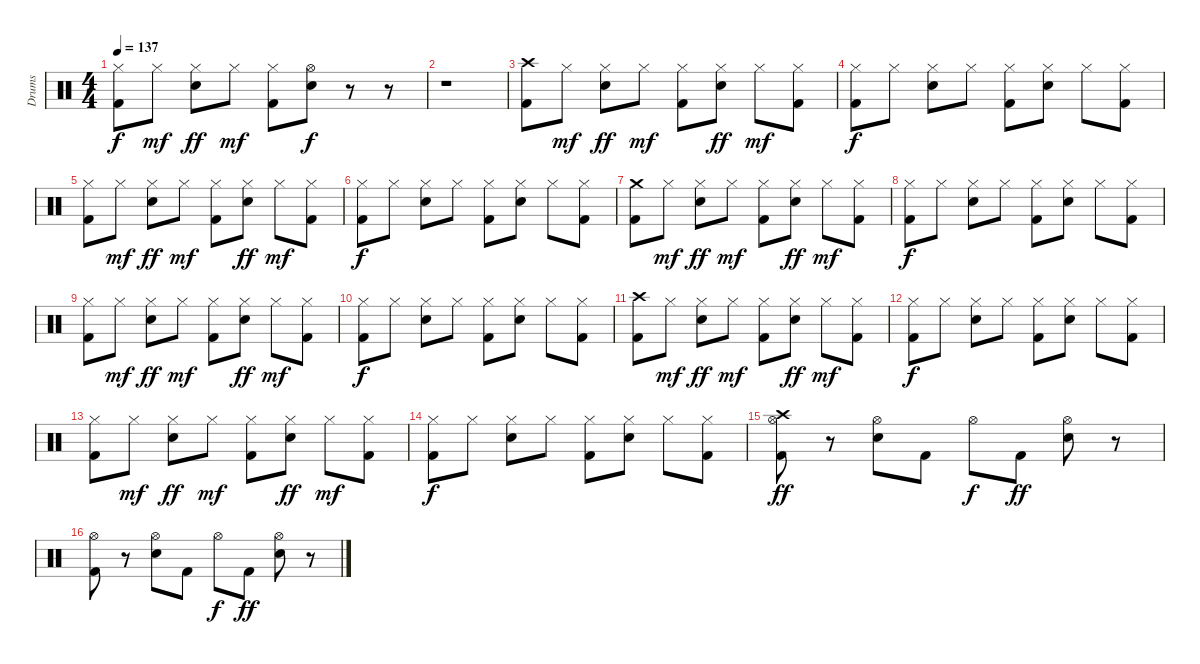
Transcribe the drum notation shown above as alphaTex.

\track ("Drums" "Drums") {instrument percussion}
\staff {score}
\articulation defaults
\ts (4 4)
\tempo 137
\clef neutral
\ks c
("Hi-Hat (closed)" "Kick (hit) 2").8{dy f} "Hi-Hat (closed)".8{dy mf} ("Hi-Hat (closed)" "Electric Snare (hit)").8{dy ff} "Hi-Hat (closed)".8{dy mf} ("Hi-Hat (closed)" "Kick (hit) 2").8 ("Hi-Hat (open)" "Electric Snare (hit)").8{dy f} r.8 r.8 |
r.1 |
("Crash high (hit)" "Kick (hit) 2").8 "Hi-Hat (closed)".8{dy mf} ("Hi-Hat (closed)" "Electric Snare (hit)").8{dy ff} "Hi-Hat (closed)".8{dy mf} ("Hi-Hat (closed)" "Kick (hit) 2").8 ("Hi-Hat (closed)" "Electric Snare (hit)").8{dy ff} "Hi-Hat (closed)".8{dy mf} ("Hi-Hat (closed)" "Kick (hit) 2").8 |
("Hi-Hat (closed)" "Kick (hit) 2").8{dy f} "Hi-Hat (closed)".8 ("Hi-Hat (closed)" "Electric Snare (hit)").8 "Hi-Hat (closed)".8 ("Hi-Hat (closed)" "Kick (hit) 2").8 ("Hi-Hat (closed)" "Electric Snare (hit)").8 "Hi-Hat (closed)".8 ("Hi-Hat (closed)" "Kick (hit) 2").8 |
("Hi-Hat (closed)" "Kick (hit) 2").8 "Hi-Hat (closed)".8{dy mf} ("Hi-Hat (closed)" "Electric Snare (hit)").8{dy ff} "Hi-Hat (closed)".8{dy mf} ("Hi-Hat (closed)" "Kick (hit) 2").8 ("Hi-Hat (closed)" "Electric Snare (hit)").8{dy ff} "Hi-Hat (closed)".8{dy mf} ("Hi-Hat (closed)" "Kick (hit) 2").8 |
("Hi-Hat (closed)" "Kick (hit) 2").8{dy f} "Hi-Hat (closed)".8 ("Hi-Hat (closed)" "Electric Snare (hit)").8 "Hi-Hat (closed)".8 ("Hi-Hat (closed)" "Kick (hit) 2").8 ("Hi-Hat (closed)" "Electric Snare (hit)").8 "Hi-Hat (closed)".8 ("Hi-Hat (closed)" "Kick (hit) 2").8 |
("Crash medium (hit)" "Kick (hit) 2").8 "Hi-Hat (closed)".8{dy mf} ("Hi-Hat (closed)" "Electric Snare (hit)").8{dy ff} "Hi-Hat (closed)".8{dy mf} ("Hi-Hat (closed)" "Kick (hit) 2").8 ("Hi-Hat (closed)" "Electric Snare (hit)").8{dy ff} "Hi-Hat (closed)".8{dy mf} ("Hi-Hat (closed)" "Kick (hit) 2").8 |
("Hi-Hat (closed)" "Kick (hit) 2").8{dy f} "Hi-Hat (closed)".8 ("Hi-Hat (closed)" "Electric Snare (hit)").8 "Hi-Hat (closed)".8 ("Hi-Hat (closed)" "Kick (hit) 2").8 ("Hi-Hat (closed)" "Electric Snare (hit)").8 "Hi-Hat (closed)".8 ("Hi-Hat (closed)" "Kick (hit) 2").8 |
("Hi-Hat (closed)" "Kick (hit) 2").8 "Hi-Hat (closed)".8{dy mf} ("Hi-Hat (closed)" "Electric Snare (hit)").8{dy ff} "Hi-Hat (closed)".8{dy mf} ("Hi-Hat (closed)" "Kick (hit) 2").8 ("Hi-Hat (closed)" "Electric Snare (hit)").8{dy ff} "Hi-Hat (closed)".8{dy mf} ("Hi-Hat (closed)" "Kick (hit) 2").8 |
("Hi-Hat (closed)" "Kick (hit) 2").8{dy f} "Hi-Hat (closed)".8 ("Hi-Hat (closed)" "Electric Snare (hit)").8 "Hi-Hat (closed)".8 ("Hi-Hat (closed)" "Kick (hit) 2").8 ("Hi-Hat (closed)" "Electric Snare (hit)").8 "Hi-Hat (closed)".8 ("Hi-Hat (closed)" "Kick (hit) 2").8 |
("Crash high (hit)" "Kick (hit) 2").8 "Hi-Hat (closed)".8{dy mf} ("Hi-Hat (closed)" "Electric Snare (hit)").8{dy ff} "Hi-Hat (closed)".8{dy mf} ("Hi-Hat (closed)" "Kick (hit) 2").8 ("Hi-Hat (closed)" "Electric Snare (hit)").8{dy ff} "Hi-Hat (closed)".8{dy mf} ("Hi-Hat (closed)" "Kick (hit) 2").8 |
("Hi-Hat (closed)" "Kick (hit) 2").8{dy f} "Hi-Hat (closed)".8 ("Hi-Hat (closed)" "Electric Snare (hit)").8 "Hi-Hat (closed)".8 ("Hi-Hat (closed)" "Kick (hit) 2").8 ("Hi-Hat (closed)" "Electric Snare (hit)").8 "Hi-Hat (closed)".8 ("Hi-Hat (closed)" "Kick (hit) 2").8 |
("Hi-Hat (closed)" "Kick (hit) 2").8 "Hi-Hat (closed)".8{dy mf} ("Hi-Hat (closed)" "Electric Snare (hit)").8{dy ff} "Hi-Hat (closed)".8{dy mf} ("Hi-Hat (closed)" "Kick (hit) 2").8 ("Hi-Hat (closed)" "Electric Snare (hit)").8{dy ff} "Hi-Hat (closed)".8{dy mf} ("Hi-Hat (closed)" "Kick (hit) 2").8 |
("Hi-Hat (closed)" "Kick (hit) 2").8{dy f} "Hi-Hat (closed)".8 ("Hi-Hat (closed)" "Electric Snare (hit)").8 "Hi-Hat (closed)".8 ("Hi-Hat (closed)" "Kick (hit) 2").8 ("Hi-Hat (closed)" "Electric Snare (hit)").8 "Hi-Hat (closed)".8 ("Hi-Hat (closed)" "Kick (hit) 2").8 |
("Crash high (hit)" "Hi-Hat (open)" "Kick (hit) 2").8{dy ff} r.8 ("Hi-Hat (open)" "Electric Snare (hit)").8 "Kick (hit) 2".8 "Hi-Hat (open)".8{dy f} "Kick (hit) 2".8{dy ff} ("Hi-Hat (open)" "Electric Snare (hit)").8 r.8 |
("Hi-Hat (open)" "Kick (hit) 2").8 r.8 ("Hi-Hat (open)" "Electric Snare (hit)").8 "Kick (hit) 2".8 "Hi-Hat (open)".8{dy f} "Kick (hit) 2".8{dy ff} ("Hi-Hat (open)" "Electric Snare (hit)").8 r.8
